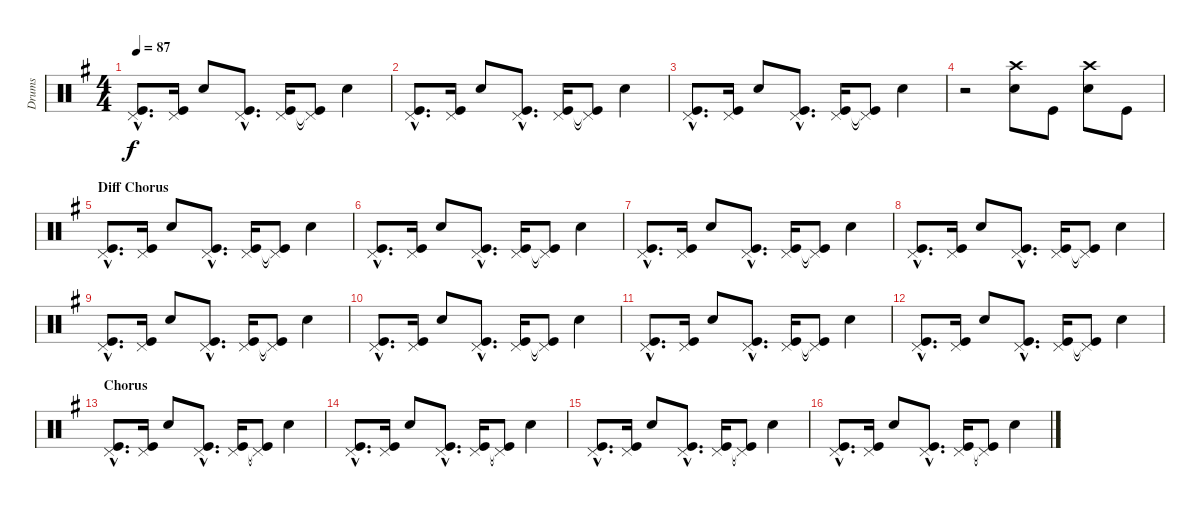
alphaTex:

\track ("Drums" "Drums") {instrument percussion}
\staff {score}
\articulation defaults
\ts (4 4)
\tempo 87
\clef neutral
\ks g
("Kick (hit)"{hac} "Pedal Hi-Hat (hit)"{hac}).8{d dy f} ("Kick (hit)" "Pedal Hi-Hat (hit)").16 "Snare (hit) 2".8 ("Kick (hit)"{hac} "Pedal Hi-Hat (hit)"{hac}).8{d} ("Kick (hit)" "Pedal Hi-Hat (hit)").16 ("Kick (hit)"{t} "Pedal Hi-Hat (hit)"{t}).8 "Snare (hit) 2".4 |
("Kick (hit)"{hac} "Pedal Hi-Hat (hit)"{hac}).8{d} ("Kick (hit)" "Pedal Hi-Hat (hit)").16 "Snare (hit) 2".8 ("Kick (hit)"{hac} "Pedal Hi-Hat (hit)"{hac}).8{d} ("Kick (hit)" "Pedal Hi-Hat (hit)").16 ("Kick (hit)"{t} "Pedal Hi-Hat (hit)"{t}).8 "Snare (hit) 2".4 |
("Kick (hit)"{hac} "Pedal Hi-Hat (hit)"{hac}).8{d} ("Kick (hit)" "Pedal Hi-Hat (hit)").16 "Snare (hit) 2".8 ("Kick (hit)"{hac} "Pedal Hi-Hat (hit)"{hac}).8{d} ("Kick (hit)" "Pedal Hi-Hat (hit)").16 ("Kick (hit)"{t} "Pedal Hi-Hat (hit)"{t}).8 "Snare (hit) 2".4 |
r.2 ("Crash high (hit)" "Snare (hit) 2").8 "Kick (hit)".8 ("Crash high (hit)" "Snare (hit) 2").8 "Kick (hit)".8 |
\section ("" "Diff Chorus")
("Kick (hit)"{hac} "Pedal Hi-Hat (hit)"{hac}).8{d} ("Kick (hit)" "Pedal Hi-Hat (hit)").16 "Snare (hit) 2".8 ("Kick (hit)"{hac} "Pedal Hi-Hat (hit)"{hac}).8{d} ("Kick (hit)" "Pedal Hi-Hat (hit)").16 ("Kick (hit)"{t} "Pedal Hi-Hat (hit)"{t}).8 "Snare (hit) 2".4 |
("Kick (hit)"{hac} "Pedal Hi-Hat (hit)"{hac}).8{d} ("Kick (hit)" "Pedal Hi-Hat (hit)").16 "Snare (hit) 2".8 ("Kick (hit)"{hac} "Pedal Hi-Hat (hit)"{hac}).8{d} ("Kick (hit)" "Pedal Hi-Hat (hit)").16 ("Kick (hit)"{t} "Pedal Hi-Hat (hit)"{t}).8 "Snare (hit) 2".4 |
("Kick (hit)"{hac} "Pedal Hi-Hat (hit)"{hac}).8{d} ("Kick (hit)" "Pedal Hi-Hat (hit)").16 "Snare (hit) 2".8 ("Kick (hit)"{hac} "Pedal Hi-Hat (hit)"{hac}).8{d} ("Kick (hit)" "Pedal Hi-Hat (hit)").16 ("Kick (hit)"{t} "Pedal Hi-Hat (hit)"{t}).8 "Snare (hit) 2".4 |
("Kick (hit)"{hac} "Pedal Hi-Hat (hit)"{hac}).8{d} ("Kick (hit)" "Pedal Hi-Hat (hit)").16 "Snare (hit) 2".8 ("Kick (hit)"{hac} "Pedal Hi-Hat (hit)"{hac}).8{d} ("Kick (hit)" "Pedal Hi-Hat (hit)").16 ("Kick (hit)"{t} "Pedal Hi-Hat (hit)"{t}).8 "Snare (hit) 2".4 |
("Kick (hit)"{hac} "Pedal Hi-Hat (hit)"{hac}).8{d} ("Kick (hit)" "Pedal Hi-Hat (hit)").16 "Snare (hit) 2".8 ("Kick (hit)"{hac} "Pedal Hi-Hat (hit)"{hac}).8{d} ("Kick (hit)" "Pedal Hi-Hat (hit)").16 ("Kick (hit)"{t} "Pedal Hi-Hat (hit)"{t}).8 "Snare (hit) 2".4 |
("Kick (hit)"{hac} "Pedal Hi-Hat (hit)"{hac}).8{d} ("Kick (hit)" "Pedal Hi-Hat (hit)").16 "Snare (hit) 2".8 ("Kick (hit)"{hac} "Pedal Hi-Hat (hit)"{hac}).8{d} ("Kick (hit)" "Pedal Hi-Hat (hit)").16 ("Kick (hit)"{t} "Pedal Hi-Hat (hit)"{t}).8 "Snare (hit) 2".4 |
("Kick (hit)"{hac} "Pedal Hi-Hat (hit)"{hac}).8{d} ("Kick (hit)" "Pedal Hi-Hat (hit)").16 "Snare (hit) 2".8 ("Kick (hit)"{hac} "Pedal Hi-Hat (hit)"{hac}).8{d} ("Kick (hit)" "Pedal Hi-Hat (hit)").16 ("Kick (hit)"{t} "Pedal Hi-Hat (hit)"{t}).8 "Snare (hit) 2".4 |
("Kick (hit)"{hac} "Pedal Hi-Hat (hit)"{hac}).8{d} ("Kick (hit)" "Pedal Hi-Hat (hit)").16 "Snare (hit) 2".8 ("Kick (hit)"{hac} "Pedal Hi-Hat (hit)"{hac}).8{d} ("Kick (hit)" "Pedal Hi-Hat (hit)").16 ("Kick (hit)"{t} "Pedal Hi-Hat (hit)"{t}).8 "Snare (hit) 2".4 |
\section ("" "Chorus")
("Kick (hit)"{hac} "Pedal Hi-Hat (hit)"{hac}).8{d} ("Kick (hit)" "Pedal Hi-Hat (hit)").16 "Snare (hit) 2".8 ("Kick (hit)"{hac} "Pedal Hi-Hat (hit)"{hac}).8{d} ("Kick (hit)" "Pedal Hi-Hat (hit)").16 ("Kick (hit)"{t} "Pedal Hi-Hat (hit)"{t}).8 "Snare (hit) 2".4 |
("Kick (hit)"{hac} "Pedal Hi-Hat (hit)"{hac}).8{d} ("Kick (hit)" "Pedal Hi-Hat (hit)").16 "Snare (hit) 2".8 ("Kick (hit)"{hac} "Pedal Hi-Hat (hit)"{hac}).8{d} ("Kick (hit)" "Pedal Hi-Hat (hit)").16 ("Kick (hit)"{t} "Pedal Hi-Hat (hit)"{t}).8 "Snare (hit) 2".4 |
("Kick (hit)"{hac} "Pedal Hi-Hat (hit)"{hac}).8{d} ("Kick (hit)" "Pedal Hi-Hat (hit)").16 "Snare (hit) 2".8 ("Kick (hit)"{hac} "Pedal Hi-Hat (hit)"{hac}).8{d} ("Kick (hit)" "Pedal Hi-Hat (hit)").16 ("Kick (hit)"{t} "Pedal Hi-Hat (hit)"{t}).8 "Snare (hit) 2".4 |
("Kick (hit)"{hac} "Pedal Hi-Hat (hit)"{hac}).8{d} ("Kick (hit)" "Pedal Hi-Hat (hit)").16 "Snare (hit) 2".8 ("Kick (hit)"{hac} "Pedal Hi-Hat (hit)"{hac}).8{d} ("Kick (hit)" "Pedal Hi-Hat (hit)").16 ("Kick (hit)"{t} "Pedal Hi-Hat (hit)"{t}).8 "Snare (hit) 2".4
